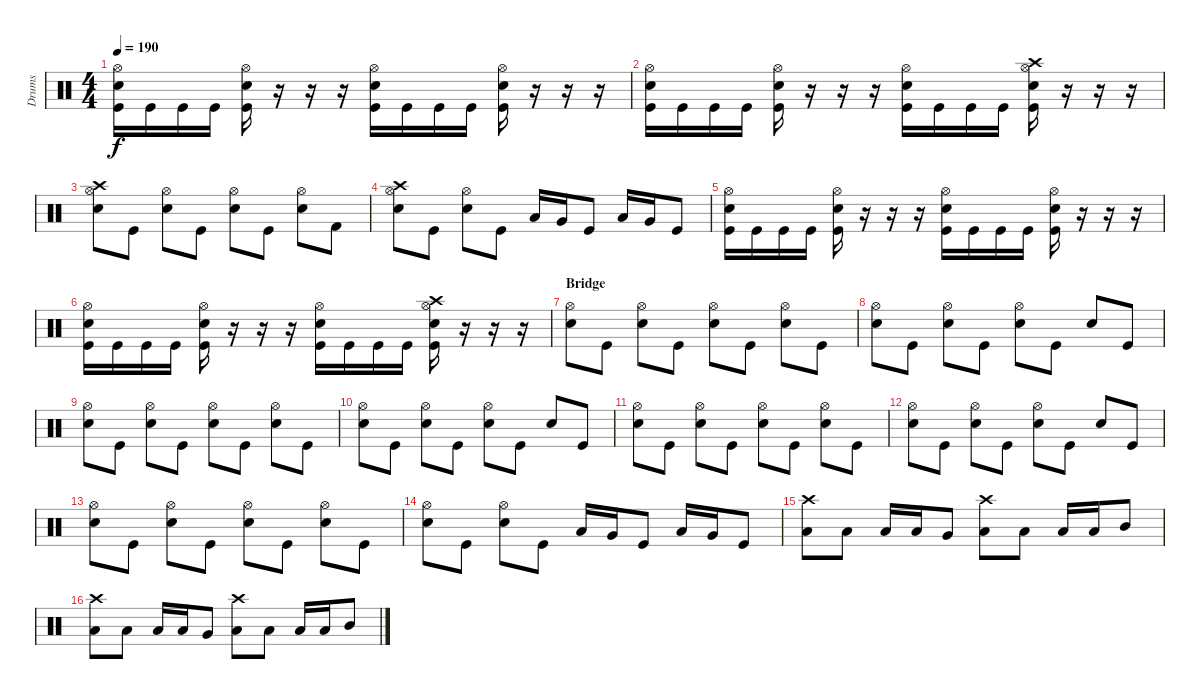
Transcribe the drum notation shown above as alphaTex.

\track ("Drums" "Drums") {instrument percussion}
\staff {score}
\articulation defaults
\ts (4 4)
\tempo 190
\clef neutral
\ks c
("Hi-Hat (open)" "Snare (hit) 2" "Kick (hit)").16{dy f} "Kick (hit)".16 "Kick (hit)".16 "Kick (hit)".16 ("Hi-Hat (open)" "Snare (hit) 2" "Kick (hit)").16 r.16 r.16 r.16 ("Hi-Hat (open)" "Snare (hit) 2" "Kick (hit)").16 "Kick (hit)".16 "Kick (hit)".16 "Kick (hit)".16 ("Hi-Hat (open)" "Snare (hit) 2" "Kick (hit)").16 r.16 r.16 r.16 |
("Hi-Hat (open)" "Snare (hit) 2" "Kick (hit)").16 "Kick (hit)".16 "Kick (hit)".16 "Kick (hit)".16 ("Hi-Hat (open)" "Snare (hit) 2" "Kick (hit)").16 r.16 r.16 r.16 ("Hi-Hat (open)" "Snare (hit) 2" "Kick (hit)").16 "Kick (hit)".16 "Kick (hit)".16 "Kick (hit)".16 ("Crash high (hit)" "Hi-Hat (open)" "Snare (hit) 2" "Kick (hit)").16 r.16 r.16 r.16 |
("Crash high (hit)" "Hi-Hat (open)" "Snare (hit) 2").8 "Kick (hit)".8 ("Hi-Hat (open)" "Snare (hit) 2").8 "Kick (hit)".8 ("Hi-Hat (open)" "Snare (hit) 2").8 "Kick (hit)".8 ("Hi-Hat (open)" "Snare (hit) 2").8 "Kick (hit) 2".8 |
("Crash high (hit)" "Hi-Hat (open)" "Snare (hit) 2").8 "Kick (hit)".8 ("Hi-Hat (open)" "Snare (hit) 2").8 "Kick (hit)".8 "Low Tom (hit)".16 "Very Low Tom (hit)".16 "Kick (hit)".8 "Low Tom (hit)".16 "Very Low Tom (hit)".16 "Kick (hit)".8 |
("Hi-Hat (open)" "Snare (hit) 2" "Kick (hit)").16 "Kick (hit)".16 "Kick (hit)".16 "Kick (hit)".16 ("Hi-Hat (open)" "Snare (hit) 2" "Kick (hit)").16 r.16 r.16 r.16 ("Hi-Hat (open)" "Snare (hit) 2" "Kick (hit)").16 "Kick (hit)".16 "Kick (hit)".16 "Kick (hit)".16 ("Hi-Hat (open)" "Snare (hit) 2" "Kick (hit)").16 r.16 r.16 r.16 |
("Hi-Hat (open)" "Snare (hit) 2" "Kick (hit)").16 "Kick (hit)".16 "Kick (hit)".16 "Kick (hit)".16 ("Hi-Hat (open)" "Snare (hit) 2" "Kick (hit)").16 r.16 r.16 r.16 ("Hi-Hat (open)" "Snare (hit) 2" "Kick (hit)").16 "Kick (hit)".16 "Kick (hit)".16 "Kick (hit)".16 ("Crash high (hit)" "Hi-Hat (open)" "Snare (hit) 2" "Kick (hit)").16 r.16 r.16 r.16 |
\section ("" "Bridge")
("Hi-Hat (open)" "Snare (hit) 2").8 "Kick (hit)".8 ("Hi-Hat (open)" "Snare (hit) 2").8 "Kick (hit)".8 ("Hi-Hat (open)" "Snare (hit) 2").8 "Kick (hit)".8 ("Hi-Hat (open)" "Snare (hit) 2").8 "Kick (hit)".8 |
("Hi-Hat (open)" "Snare (hit) 2").8 "Kick (hit)".8 ("Hi-Hat (open)" "Snare (hit) 2").8 "Kick (hit)".8 ("Hi-Hat (open)" "Snare (hit) 2").8 "Kick (hit)".8 "Snare (hit) 2".8 "Kick (hit)".8 |
("Hi-Hat (open)" "Snare (hit) 2").8 "Kick (hit)".8 ("Hi-Hat (open)" "Snare (hit) 2").8 "Kick (hit)".8 ("Hi-Hat (open)" "Snare (hit) 2").8 "Kick (hit)".8 ("Hi-Hat (open)" "Snare (hit) 2").8 "Kick (hit)".8 |
("Hi-Hat (open)" "Snare (hit) 2").8 "Kick (hit)".8 ("Hi-Hat (open)" "Snare (hit) 2").8 "Kick (hit)".8 ("Hi-Hat (open)" "Snare (hit) 2").8 "Kick (hit)".8 "Snare (hit) 2".8 "Kick (hit)".8 |
("Hi-Hat (open)" "Snare (hit) 2").8 "Kick (hit)".8 ("Hi-Hat (open)" "Snare (hit) 2").8 "Kick (hit)".8 ("Hi-Hat (open)" "Snare (hit) 2").8 "Kick (hit)".8 ("Hi-Hat (open)" "Snare (hit) 2").8 "Kick (hit)".8 |
("Hi-Hat (open)" "Snare (hit) 2").8 "Kick (hit)".8 ("Hi-Hat (open)" "Snare (hit) 2").8 "Kick (hit)".8 ("Hi-Hat (open)" "Snare (hit) 2").8 "Kick (hit)".8 "Snare (hit) 2".8 "Kick (hit)".8 |
("Hi-Hat (open)" "Snare (hit) 2").8 "Kick (hit)".8 ("Hi-Hat (open)" "Snare (hit) 2").8 "Kick (hit)".8 ("Hi-Hat (open)" "Snare (hit) 2").8 "Kick (hit)".8 ("Hi-Hat (open)" "Snare (hit) 2").8 "Kick (hit)".8 |
("Hi-Hat (open)" "Snare (hit) 2").8 "Kick (hit)".8 ("Hi-Hat (open)" "Snare (hit) 2").8 "Kick (hit)".8 "Low Tom (hit)".16 "Very Low Tom (hit)".16 "Kick (hit)".8 "Low Tom (hit)".16 "Very Low Tom (hit)".16 "Kick (hit)".8 |
("Crash high (hit)" "Low Tom (hit)").8 "Low Tom (hit)".8 "Low Tom (hit)".16 "Low Tom (hit)".16 "Very Low Tom (hit)".8 ("Crash high (hit)" "Low Tom (hit)").8 "Low Tom (hit)".8 "Low Tom (hit)".16 "Low Tom (hit)".16 "Mid Tom (hit)".8 |
("Crash high (hit)" "Low Tom (hit)").8 "Low Tom (hit)".8 "Low Tom (hit)".16 "Low Tom (hit)".16 "Very Low Tom (hit)".8 ("Crash high (hit)" "Low Tom (hit)").8 "Low Tom (hit)".8 "Low Tom (hit)".16 "Low Tom (hit)".16 "Mid Tom (hit)".8
